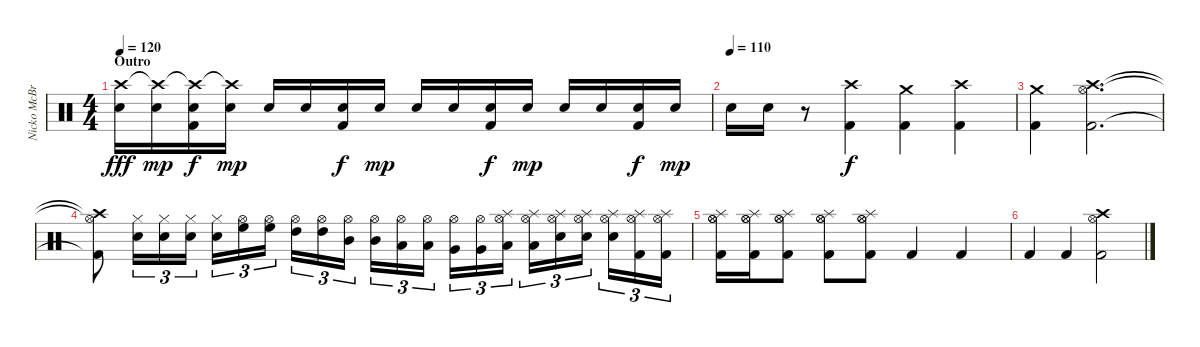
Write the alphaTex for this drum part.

\track ("Nicko McBrain" "Nicko McBr") {instrument percussion}
\staff {score}
\articulation defaults
\ts (4 4)
\section ("" "Outro")
\tempo 120
\clef neutral
\ks c
("Snare (hit) 2" "Crash high (hit)").16{dy fff} ("Snare (hit) 2" "Crash high (hit)"{t}).16{dy mp} ("Snare (hit) 2" "Crash high (hit)"{t} "Kick (hit) 2").16{dy f} ("Snare (hit) 2" "Crash high (hit)"{t}).16{dy mp} "Snare (hit) 2".16 "Snare (hit) 2".16 ("Snare (hit) 2" "Kick (hit) 2").16{dy f} "Snare (hit) 2".16{dy mp} "Snare (hit) 2".16 "Snare (hit) 2".16 ("Snare (hit) 2" "Kick (hit) 2").16{dy f} "Snare (hit) 2".16{dy mp} "Snare (hit) 2".16 "Snare (hit) 2".16 ("Snare (hit) 2" "Kick (hit) 2").16{dy f} "Snare (hit) 2".16{dy mp} |
\tempo (110)
"Snare (hit) 2".16 "Snare (hit) 2".16 r.8 ("Crash high (hit)" "Kick (hit) 2").4{dy f} ("Crash medium (hit)" "Kick (hit) 2").4 ("Crash high (hit)" "Kick (hit) 2").4 |
("Crash medium (hit)" "Kick (hit) 2").4 ("Hi-Hat (open)" "Crash high (hit)" "Kick (hit) 2").2{d} |
("Hi-Hat (open)"{t} "Crash high (hit)"{t} "Kick (hit) 2"{t}).8 ("Hi-Hat (closed)" "Snare (hit) 2").16{tu (3 2)} ("Hi-Hat (closed)" "Snare (hit) 2").16{tu (3 2)} ("Hi-Hat (closed)" "Snare (hit) 2").16{tu (3 2)} ("Hi-Hat (closed)" "Snare (hit) 2").16{tu (3 2)} ("Hi-Hat (open)" "High Floor Tom (hit)").16{tu (3 2)} ("Hi-Hat (open)" "High Floor Tom (hit)").16{tu (3 2) beam splitsecondary} ("Hi-Hat (open)" "High Tom (hit)").16{tu (3 2)} ("Hi-Hat (open)" "High Tom (hit)").16{tu (3 2)} ("Hi-Hat (open)" "Mid Tom (hit)").16{tu (3 2)} ("Hi-Hat (open)" "Mid Tom (hit)").16{tu (3 2)} ("Hi-Hat (open)" "Low Tom (hit)").16{tu (3 2)} ("Hi-Hat (open)" "Low Tom (hit)").16{tu (3 2) beam splitsecondary} ("Hi-Hat (open)" "Very Low Tom (hit)").16{tu (3 2)} ("Hi-Hat (open)" "Very Low Tom (hit)").16{tu (3 2)} ("Hi-Hat (open)" "Low Floor Tom (hit)" "Splash (hit)").16{tu (3 2)} ("Hi-Hat (open)" "Low Floor Tom (hit)" "Splash (hit)").16{tu (3 2)} ("Hi-Hat (open)" "Snare (hit) 2" "Splash (hit)").16{tu (3 2)} ("Hi-Hat (open)" "Snare (hit) 2" "Splash (hit)").16{tu (3 2) beam splitsecondary} ("Hi-Hat (open)" "Snare (hit) 2" "Splash (hit)").16{tu (3 2)} ("Hi-Hat (open)" "Splash (hit)" "Kick (hit) 2").16{tu (3 2)} ("Hi-Hat (open)" "Splash (hit)" "Kick (hit) 2").16{tu (3 2)} |
("Hi-Hat (open)" "Hi-Hat (open)" "Splash (hit)" "Kick (hit) 2").16 ("Hi-Hat (open)" "Hi-Hat (open)" "Splash (hit)" "Kick (hit) 2").16 ("Hi-Hat (open)" "Hi-Hat (open)" "Splash (hit)" "Kick (hit) 2").8 ("Hi-Hat (open)" "Hi-Hat (open)" "Splash (hit)" "Kick (hit) 2").8 ("Hi-Hat (open)" "Hi-Hat (open)" "Splash (hit)" "Kick (hit) 2").8 "Kick (hit) 2".4 "Kick (hit) 2".4 |
"Kick (hit) 2".4 "Kick (hit) 2".4 ("Hi-Hat (open)" "Crash high (hit)" "Kick (hit) 2").2
